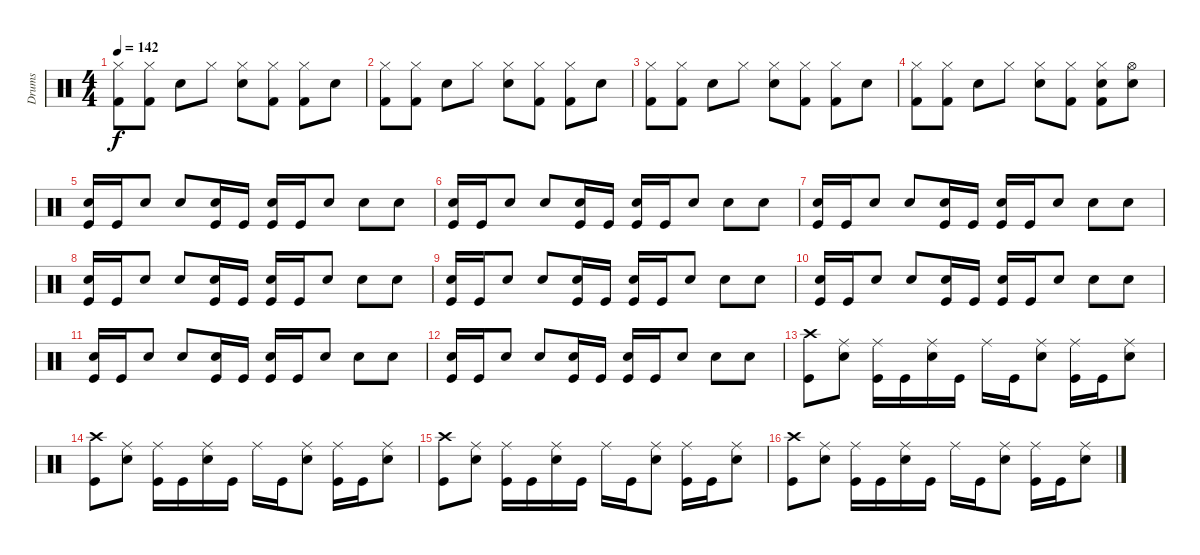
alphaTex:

\track ("Drums" "Drums") {instrument percussion}
\staff {score}
\articulation defaults
\ts (4 4)
\tempo 142
\clef neutral
\ks c
("Hi-Hat (closed)" "Kick (hit) 2").8{dy f} ("Hi-Hat (closed)" "Kick (hit) 2").8 "Electric Snare (hit)".8 "Hi-Hat (closed)".8 ("Hi-Hat (closed)" "Electric Snare (hit)").8 ("Hi-Hat (closed)" "Kick (hit) 2").8 ("Hi-Hat (closed)" "Kick (hit) 2").8 "Electric Snare (hit)".8 |
("Hi-Hat (closed)" "Kick (hit) 2").8 ("Hi-Hat (closed)" "Kick (hit) 2").8 "Electric Snare (hit)".8 "Hi-Hat (closed)".8 ("Hi-Hat (closed)" "Electric Snare (hit)").8 ("Hi-Hat (closed)" "Kick (hit) 2").8 ("Hi-Hat (closed)" "Kick (hit) 2").8 "Electric Snare (hit)".8 |
("Hi-Hat (closed)" "Kick (hit) 2").8 ("Hi-Hat (closed)" "Kick (hit) 2").8 "Electric Snare (hit)".8 "Hi-Hat (closed)".8 ("Hi-Hat (closed)" "Electric Snare (hit)").8 ("Hi-Hat (closed)" "Kick (hit) 2").8 ("Hi-Hat (closed)" "Kick (hit) 2").8 "Electric Snare (hit)".8 |
("Hi-Hat (closed)" "Kick (hit) 2").8 ("Hi-Hat (closed)" "Kick (hit) 2").8 "Electric Snare (hit)".8 "Hi-Hat (closed)".8 ("Hi-Hat (closed)" "Electric Snare (hit)").8 ("Hi-Hat (closed)" "Kick (hit) 2").8 ("Hi-Hat (closed)" "Electric Snare (hit)" "Kick (hit) 2").8 ("Hi-Hat (open)" "Electric Snare (hit)").8 |
("Electric Snare (hit)" "Kick (hit)").16 "Kick (hit)".16 "Electric Snare (hit)".8 "Electric Snare (hit)".8 ("Electric Snare (hit)" "Kick (hit)").16 "Kick (hit)".16 ("Electric Snare (hit)" "Kick (hit)").16 "Kick (hit)".16 "Electric Snare (hit)".8 "Electric Snare (hit)".8 "Electric Snare (hit)".8 |
("Electric Snare (hit)" "Kick (hit)").16 "Kick (hit)".16 "Electric Snare (hit)".8 "Electric Snare (hit)".8 ("Electric Snare (hit)" "Kick (hit)").16 "Kick (hit)".16 ("Electric Snare (hit)" "Kick (hit)").16 "Kick (hit)".16 "Electric Snare (hit)".8 "Electric Snare (hit)".8 "Electric Snare (hit)".8 |
("Electric Snare (hit)" "Kick (hit)").16 "Kick (hit)".16 "Electric Snare (hit)".8 "Electric Snare (hit)".8 ("Electric Snare (hit)" "Kick (hit)").16 "Kick (hit)".16 ("Electric Snare (hit)" "Kick (hit)").16 "Kick (hit)".16 "Electric Snare (hit)".8 "Electric Snare (hit)".8 "Electric Snare (hit)".8 |
("Electric Snare (hit)" "Kick (hit)").16 "Kick (hit)".16 "Electric Snare (hit)".8 "Electric Snare (hit)".8 ("Electric Snare (hit)" "Kick (hit)").16 "Kick (hit)".16 ("Electric Snare (hit)" "Kick (hit)").16 "Kick (hit)".16 "Electric Snare (hit)".8 "Electric Snare (hit)".8 "Electric Snare (hit)".8 |
("Electric Snare (hit)" "Kick (hit)").16 "Kick (hit)".16 "Electric Snare (hit)".8 "Electric Snare (hit)".8 ("Electric Snare (hit)" "Kick (hit)").16 "Kick (hit)".16 ("Electric Snare (hit)" "Kick (hit)").16 "Kick (hit)".16 "Electric Snare (hit)".8 "Electric Snare (hit)".8 "Electric Snare (hit)".8 |
("Electric Snare (hit)" "Kick (hit)").16 "Kick (hit)".16 "Electric Snare (hit)".8 "Electric Snare (hit)".8 ("Electric Snare (hit)" "Kick (hit)").16 "Kick (hit)".16 ("Electric Snare (hit)" "Kick (hit)").16 "Kick (hit)".16 "Electric Snare (hit)".8 "Electric Snare (hit)".8 "Electric Snare (hit)".8 |
("Electric Snare (hit)" "Kick (hit)").16 "Kick (hit)".16 "Electric Snare (hit)".8 "Electric Snare (hit)".8 ("Electric Snare (hit)" "Kick (hit)").16 "Kick (hit)".16 ("Electric Snare (hit)" "Kick (hit)").16 "Kick (hit)".16 "Electric Snare (hit)".8 "Electric Snare (hit)".8 "Electric Snare (hit)".8 |
("Electric Snare (hit)" "Kick (hit)").16 "Kick (hit)".16 "Electric Snare (hit)".8 "Electric Snare (hit)".8 ("Electric Snare (hit)" "Kick (hit)").16 "Kick (hit)".16 ("Electric Snare (hit)" "Kick (hit)").16 "Kick (hit)".16 "Electric Snare (hit)".8 "Electric Snare (hit)".8 "Electric Snare (hit)".8 |
("Crash high (hit)" "Kick (hit)").8 ("Ride (middle)" "Electric Snare (hit)").8 ("Ride (middle)" "Kick (hit)").16 "Kick (hit)".16 ("Ride (middle)" "Electric Snare (hit)").16 "Kick (hit)".16 "Ride (middle)".16 "Kick (hit)".16 ("Ride (middle)" "Electric Snare (hit)").8 ("Ride (middle)" "Kick (hit)").16 "Kick (hit)".16 ("Ride (middle)" "Snare (hit) 2").8 |
("Crash high (hit)" "Kick (hit)").8 ("Ride (middle)" "Electric Snare (hit)").8 ("Ride (middle)" "Kick (hit)").16 "Kick (hit)".16 ("Ride (middle)" "Electric Snare (hit)").16 "Kick (hit)".16 "Ride (middle)".16 "Kick (hit)".16 ("Ride (middle)" "Electric Snare (hit)").8 ("Ride (middle)" "Kick (hit)").16 "Kick (hit)".16 ("Ride (middle)" "Snare (hit) 2").8 |
("Crash high (hit)" "Kick (hit)").8 ("Ride (middle)" "Electric Snare (hit)").8 ("Ride (middle)" "Kick (hit)").16 "Kick (hit)".16 ("Ride (middle)" "Electric Snare (hit)").16 "Kick (hit)".16 "Ride (middle)".16 "Kick (hit)".16 ("Ride (middle)" "Electric Snare (hit)").8 ("Ride (middle)" "Kick (hit)").16 "Kick (hit)".16 ("Ride (middle)" "Snare (hit) 2").8 |
("Crash high (hit)" "Kick (hit)").8 ("Ride (middle)" "Electric Snare (hit)").8 ("Ride (middle)" "Kick (hit)").16 "Kick (hit)".16 ("Ride (middle)" "Electric Snare (hit)").16 "Kick (hit)".16 "Ride (middle)".16 "Kick (hit)".16 ("Ride (middle)" "Electric Snare (hit)").8 ("Ride (middle)" "Kick (hit)").16 "Kick (hit)".16 ("Ride (middle)" "Snare (hit) 2").8
